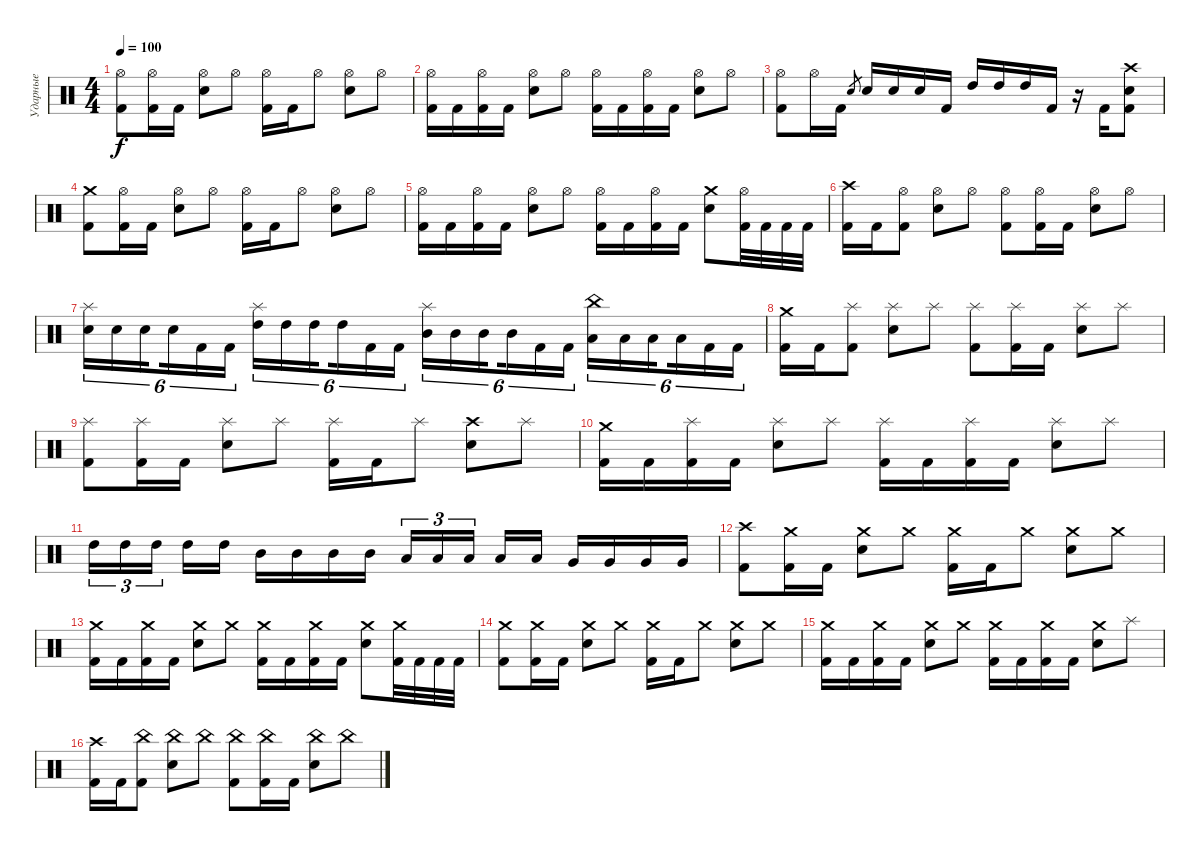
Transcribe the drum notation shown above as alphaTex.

\track ("Ударные" "Ударные") {instrument percussion}
\staff {score}
\articulation defaults
\ts (4 4)
\tempo 100
\clef neutral
\ks c
("Hi-Hat (open)" "Kick (hit) 2").8{dy f} ("Hi-Hat (open)" "Kick (hit) 2").16 "Kick (hit) 2".16 ("Hi-Hat (open)" "Electric Snare (hit)").8 "Hi-Hat (open)".8 ("Hi-Hat (open)" "Kick (hit) 2").16 "Kick (hit) 2".16 "Hi-Hat (open)".8 ("Hi-Hat (open)" "Electric Snare (hit)").8 "Hi-Hat (open)".8 |
("Hi-Hat (open)" "Kick (hit) 2").16 "Kick (hit) 2".16 ("Hi-Hat (open)" "Kick (hit) 2").16 "Kick (hit) 2".16 ("Hi-Hat (open)" "Electric Snare (hit)").8 "Hi-Hat (open)".8 ("Hi-Hat (open)" "Kick (hit) 2").16 "Kick (hit) 2".16 ("Hi-Hat (open)" "Kick (hit) 2").16 "Kick (hit) 2".16 ("Hi-Hat (open)" "Electric Snare (hit)").8 "Hi-Hat (open)".8 |
("Hi-Hat (open)" "Kick (hit) 2").8 "Hi-Hat (open)".16 "Kick (hit) 2".16 "Electric Snare (hit)".8{gr} "Electric Snare (hit)".16 "Electric Snare (hit)".16 "Electric Snare (hit)".16 "Kick (hit) 2".16 "High Tom (hit)".16 "High Tom (hit)".16 "High Tom (hit)".16 "Kick (hit) 2".16 r.16 "Kick (hit) 2".16 ("Crash high (hit)" "Electric Snare (hit)" "Kick (hit) 2").8 |
("Crash medium (hit)" "Kick (hit) 2").8 ("Hi-Hat (open)" "Kick (hit) 2").16 "Kick (hit) 2".16 ("Hi-Hat (open)" "Electric Snare (hit)").8 "Hi-Hat (open)".8 ("Hi-Hat (open)" "Kick (hit) 2").16 "Kick (hit) 2".16 "Hi-Hat (open)".8 ("Hi-Hat (open)" "Electric Snare (hit)").8 "Hi-Hat (open)".8 |
("Hi-Hat (open)" "Kick (hit) 2").16 "Kick (hit) 2".16 ("Hi-Hat (open)" "Kick (hit) 2").16 "Kick (hit) 2".16 ("Hi-Hat (open)" "Electric Snare (hit)").8 "Hi-Hat (open)".8 ("Hi-Hat (open)" "Kick (hit) 2").16 "Kick (hit) 2".16 ("Hi-Hat (open)" "Kick (hit) 2").16 "Kick (hit) 2".16 ("Crash medium (hit)" "Electric Snare (hit)").8 ("Hi-Hat (open)" "Kick (hit) 2").32 "Kick (hit) 2".32 "Kick (hit) 2".32 "Kick (hit) 2".32 |
("Crash high (hit)" "Kick (hit) 2").16 "Kick (hit) 2".16 ("Hi-Hat (open)" "Kick (hit) 2").8 ("Hi-Hat (open)" "Electric Snare (hit)").8 "Hi-Hat (open)".8 ("Hi-Hat (open)" "Kick (hit) 2").8 ("Hi-Hat (open)" "Kick (hit) 2").16 "Kick (hit) 2".16 ("Hi-Hat (open)" "Electric Snare (hit)").8 "Hi-Hat (open)".8 |
("Electric Snare (hit)" "Splash (hit)").16{tu (6 4)} "Electric Snare (hit)".16{tu (6 4)} "Electric Snare (hit)".16{tu (6 4) beam splitsecondary} "Electric Snare (hit)".16{tu (6 4)} "Kick (hit) 2".16{tu (6 4)} "Kick (hit) 2".16{tu (6 4)} ("High Tom (hit)" "Splash (hit)").16{tu (6 4)} "High Tom (hit)".16{tu (6 4)} "High Tom (hit)".16{tu (6 4) beam splitsecondary} "High Tom (hit)".16{tu (6 4)} "Kick (hit) 2".16{tu (6 4)} "Kick (hit) 2".16{tu (6 4)} ("Mid Tom (hit)" "Splash (hit)").16{tu (6 4)} "Mid Tom (hit)".16{tu (6 4)} "Mid Tom (hit)".16{tu (6 4) beam splitsecondary} "Mid Tom (hit)".16{tu (6 4)} "Kick (hit) 2".16{tu (6 4)} "Kick (hit) 2".16{tu (6 4)} ("Low Tom (hit)" "China (hit)").16{tu (6 4)} "Low Tom (hit)".16{tu (6 4)} "Low Tom (hit)".16{tu (6 4) beam splitsecondary} "Low Tom (hit)".16{tu (6 4)} "Kick (hit) 2".16{tu (6 4)} "Kick (hit) 2".16{tu (6 4)} |
("Crash medium (hit)" "Kick (hit) 2").16 "Kick (hit) 2".16 ("Splash (hit)" "Kick (hit) 2").8 ("Splash (hit)" "Electric Snare (hit)").8 "Splash (hit)".8 ("Splash (hit)" "Kick (hit) 2").8 ("Splash (hit)" "Kick (hit) 2").16 "Kick (hit) 2".16 ("Splash (hit)" "Electric Snare (hit)").8 "Splash (hit)".8 |
("Splash (hit)" "Kick (hit) 2").8 ("Splash (hit)" "Kick (hit) 2").16 "Kick (hit) 2".16 ("Splash (hit)" "Electric Snare (hit)").8 "Splash (hit)".8 ("Splash (hit)" "Kick (hit) 2").16 "Kick (hit) 2".16 "Splash (hit)".8 ("Crash high (hit)" "Electric Snare (hit)").8 "Splash (hit)".8 |
("Crash medium (hit)" "Kick (hit) 2").16 "Kick (hit) 2".16 ("Splash (hit)" "Kick (hit) 2").16 "Kick (hit) 2".16 ("Splash (hit)" "Electric Snare (hit)").8 "Splash (hit)".8 ("Splash (hit)" "Kick (hit) 2").16 "Kick (hit) 2".16 ("Splash (hit)" "Kick (hit) 2").16 "Kick (hit) 2".16 ("Splash (hit)" "Electric Snare (hit)").8 "Splash (hit)".8 |
"High Tom (hit)".16{tu (3 2)} "High Tom (hit)".16{tu (3 2)} "High Tom (hit)".16{tu (3 2) beam splitsecondary} "High Tom (hit)".16 "High Tom (hit)".16 "Mid Tom (hit)".16 "Mid Tom (hit)".16 "Mid Tom (hit)".16 "Mid Tom (hit)".16 "Low Tom (hit)".16{tu (3 2)} "Low Tom (hit)".16{tu (3 2)} "Low Tom (hit)".16{tu (3 2) beam splitsecondary} "Low Tom (hit)".16 "Low Tom (hit)".16 "Very Low Tom (hit)".16 "Very Low Tom (hit)".16 "Very Low Tom (hit)".16 "Very Low Tom (hit)".16 |
("Crash high (hit)" "Kick (hit) 2").8 ("Crash medium (hit)" "Kick (hit) 2").16 "Kick (hit) 2".16 ("Crash medium (hit)" "Electric Snare (hit)").8 "Crash medium (hit)".8 ("Crash medium (hit)" "Kick (hit) 2").16 "Kick (hit) 2".16 "Crash medium (hit)".8 ("Crash medium (hit)" "Electric Snare (hit)").8 "Crash medium (hit)".8 |
("Crash medium (hit)" "Kick (hit) 2").16 "Kick (hit) 2".16 ("Crash medium (hit)" "Kick (hit) 2").16 "Kick (hit) 2".16 ("Crash medium (hit)" "Electric Snare (hit)").8 "Crash medium (hit)".8 ("Crash medium (hit)" "Kick (hit) 2").16 "Kick (hit) 2".16 ("Crash medium (hit)" "Kick (hit) 2").16 "Kick (hit) 2".16 ("Crash medium (hit)" "Electric Snare (hit)").8 ("Crash medium (hit)" "Kick (hit) 2").32 "Kick (hit) 2".32 "Kick (hit) 2".32 "Kick (hit) 2".32 |
("Crash medium (hit)" "Kick (hit) 2").8 ("Crash medium (hit)" "Kick (hit) 2").16 "Kick (hit) 2".16 ("Crash medium (hit)" "Electric Snare (hit)").8 "Crash medium (hit)".8 ("Crash medium (hit)" "Kick (hit) 2").16 "Kick (hit) 2".16 "Crash medium (hit)".8 ("Crash medium (hit)" "Electric Snare (hit)").8 "Crash medium (hit)".8 |
("Crash medium (hit)" "Kick (hit) 2").16 "Kick (hit) 2".16 ("Crash medium (hit)" "Kick (hit) 2").16 "Kick (hit) 2".16 ("Crash medium (hit)" "Electric Snare (hit)").8 "Crash medium (hit)".8 ("Crash medium (hit)" "Kick (hit) 2").16 "Kick (hit) 2".16 ("Crash medium (hit)" "Kick (hit) 2").16 "Kick (hit) 2".16 ("Crash medium (hit)" "Electric Snare (hit)").8 "Splash (hit)".8 |
("Crash high (hit)" "Kick (hit) 2").16 "Kick (hit) 2".16 ("China (hit)" "Kick (hit) 2").8 ("China (hit)" "Electric Snare (hit)").8 "China (hit)".8 ("China (hit)" "Kick (hit) 2").8 ("China (hit)" "Kick (hit) 2").16 "Kick (hit) 2".16 ("China (hit)" "Electric Snare (hit)").8 "China (hit)".8
